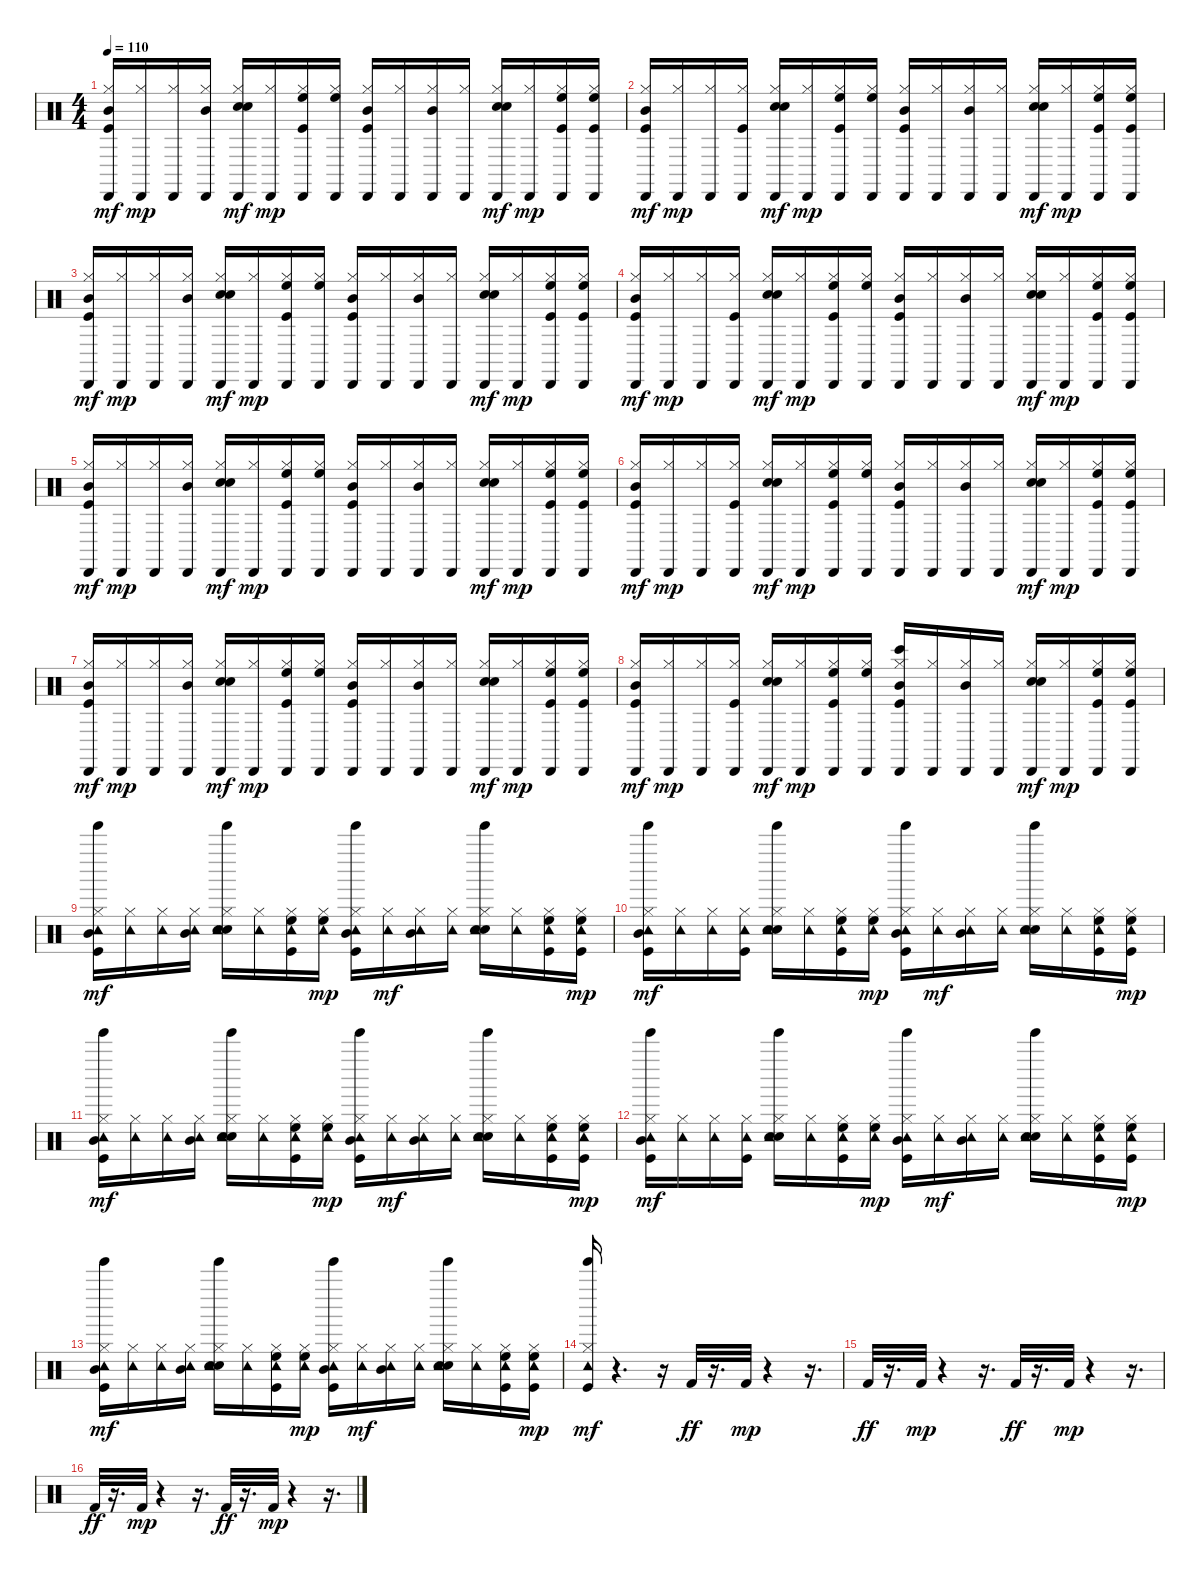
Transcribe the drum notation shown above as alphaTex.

\track "" {instrument percussion}
\staff {score}
\articulation defaults
\ts (4 4)
\tempo 110
\clef neutral
\ks c
("Kick (hit)" "Hi-Hat (closed)" "Cabasa (hit)" "Mid Tom (hit)").16{dy mf} ("Hi-Hat (closed)" "Cabasa (hit)").16{dy mp} ("Hi-Hat (closed)" "Cabasa (hit)").16 ("Hi-Hat (closed)" "Cabasa (hit)" "Mid Tom (hit)").16 ("Electric Snare (hit)" "Hi-Hat (closed)" "Cabasa (hit)" "Hand Clap (hit)").16{dy mf} ("Hi-Hat (closed)" "Cabasa (hit)").16{dy mp} ("Kick (hit)" "Hi-Hat (closed)" "Cabasa (hit)" "High Floor Tom (hit)").16 ("Hi-Hat (closed)" "Cabasa (hit)" "High Floor Tom (hit)").16 ("Kick (hit)" "Hi-Hat (closed)" "Cabasa (hit)" "Mid Tom (hit)").16 ("Hi-Hat (closed)" "Cabasa (hit)").16 ("Hi-Hat (closed)" "Cabasa (hit)" "Mid Tom (hit)").16 ("Hi-Hat (closed)" "Cabasa (hit)").16 ("Electric Snare (hit)" "Hi-Hat (closed)" "Cabasa (hit)" "Hand Clap (hit)").16{dy mf} ("Hi-Hat (closed)" "Cabasa (hit)").16{dy mp} ("Kick (hit)" "Hi-Hat (closed)" "Cabasa (hit)" "High Floor Tom (hit)").16 ("Kick (hit)" "Hi-Hat (closed)" "Cabasa (hit)" "High Floor Tom (hit)").16 |
("Kick (hit)" "Hi-Hat (closed)" "Cabasa (hit)" "Mid Tom (hit)").16{dy mf} ("Hi-Hat (closed)" "Cabasa (hit)").16{dy mp} ("Hi-Hat (closed)" "Cabasa (hit)").16 ("Kick (hit)" "Hi-Hat (closed)" "Cabasa (hit)").16 ("Electric Snare (hit)" "Hi-Hat (closed)" "Cabasa (hit)" "Hand Clap (hit)").16{dy mf} ("Hi-Hat (closed)" "Cabasa (hit)").16{dy mp} ("Kick (hit)" "Hi-Hat (closed)" "Cabasa (hit)" "High Floor Tom (hit)").16 ("Hi-Hat (closed)" "Cabasa (hit)" "High Floor Tom (hit)").16 ("Kick (hit)" "Hi-Hat (closed)" "Cabasa (hit)" "Mid Tom (hit)").16 ("Hi-Hat (closed)" "Cabasa (hit)").16 ("Hi-Hat (closed)" "Cabasa (hit)" "Mid Tom (hit)").16 ("Hi-Hat (closed)" "Cabasa (hit)").16 ("Electric Snare (hit)" "Hi-Hat (closed)" "Cabasa (hit)" "Hand Clap (hit)").16{dy mf} ("Hi-Hat (closed)" "Cabasa (hit)").16{dy mp} ("Kick (hit)" "Hi-Hat (closed)" "Cabasa (hit)" "High Floor Tom (hit)").16 ("Kick (hit)" "Hi-Hat (closed)" "Cabasa (hit)" "High Floor Tom (hit)").16 |
("Kick (hit)" "Hi-Hat (closed)" "Cabasa (hit)" "Mid Tom (hit)").16{dy mf} ("Hi-Hat (closed)" "Cabasa (hit)").16{dy mp} ("Hi-Hat (closed)" "Cabasa (hit)").16 ("Hi-Hat (closed)" "Cabasa (hit)" "Mid Tom (hit)").16 ("Electric Snare (hit)" "Hi-Hat (closed)" "Cabasa (hit)" "Hand Clap (hit)").16{dy mf} ("Hi-Hat (closed)" "Cabasa (hit)").16{dy mp} ("Kick (hit)" "Hi-Hat (closed)" "Cabasa (hit)" "High Floor Tom (hit)").16 ("Hi-Hat (closed)" "Cabasa (hit)" "High Floor Tom (hit)").16 ("Kick (hit)" "Hi-Hat (closed)" "Cabasa (hit)" "Mid Tom (hit)").16 ("Hi-Hat (closed)" "Cabasa (hit)").16 ("Hi-Hat (closed)" "Cabasa (hit)" "Mid Tom (hit)").16 ("Hi-Hat (closed)" "Cabasa (hit)").16 ("Electric Snare (hit)" "Hi-Hat (closed)" "Cabasa (hit)" "Hand Clap (hit)").16{dy mf} ("Hi-Hat (closed)" "Cabasa (hit)").16{dy mp} ("Kick (hit)" "Hi-Hat (closed)" "Cabasa (hit)" "High Floor Tom (hit)").16 ("Kick (hit)" "Hi-Hat (closed)" "Cabasa (hit)" "High Floor Tom (hit)").16 |
("Kick (hit)" "Hi-Hat (closed)" "Cabasa (hit)" "Mid Tom (hit)").16{dy mf} ("Hi-Hat (closed)" "Cabasa (hit)").16{dy mp} ("Hi-Hat (closed)" "Cabasa (hit)").16 ("Kick (hit)" "Hi-Hat (closed)" "Cabasa (hit)").16 ("Electric Snare (hit)" "Hi-Hat (closed)" "Cabasa (hit)" "Hand Clap (hit)").16{dy mf} ("Hi-Hat (closed)" "Cabasa (hit)").16{dy mp} ("Kick (hit)" "Hi-Hat (closed)" "Cabasa (hit)" "High Floor Tom (hit)").16 ("Hi-Hat (closed)" "Cabasa (hit)" "High Floor Tom (hit)").16 ("Kick (hit)" "Hi-Hat (closed)" "Cabasa (hit)" "Mid Tom (hit)").16 ("Hi-Hat (closed)" "Cabasa (hit)").16 ("Hi-Hat (closed)" "Cabasa (hit)" "Mid Tom (hit)").16 ("Hi-Hat (closed)" "Cabasa (hit)").16 ("Electric Snare (hit)" "Hi-Hat (closed)" "Cabasa (hit)" "Hand Clap (hit)").16{dy mf} ("Hi-Hat (closed)" "Cabasa (hit)").16{dy mp} ("Kick (hit)" "Hi-Hat (closed)" "Cabasa (hit)" "High Floor Tom (hit)").16 ("Kick (hit)" "Hi-Hat (closed)" "Cabasa (hit)" "High Floor Tom (hit)").16 |
("Kick (hit)" "Hi-Hat (closed)" "Cabasa (hit)" "Mid Tom (hit)").16{dy mf} ("Hi-Hat (closed)" "Cabasa (hit)").16{dy mp} ("Hi-Hat (closed)" "Cabasa (hit)").16 ("Hi-Hat (closed)" "Cabasa (hit)" "Mid Tom (hit)").16 ("Electric Snare (hit)" "Hi-Hat (closed)" "Cabasa (hit)" "Hand Clap (hit)").16{dy mf} ("Hi-Hat (closed)" "Cabasa (hit)").16{dy mp} ("Kick (hit)" "Hi-Hat (closed)" "Cabasa (hit)" "High Floor Tom (hit)").16 ("Hi-Hat (closed)" "Cabasa (hit)" "High Floor Tom (hit)").16 ("Kick (hit)" "Hi-Hat (closed)" "Cabasa (hit)" "Mid Tom (hit)").16 ("Hi-Hat (closed)" "Cabasa (hit)").16 ("Hi-Hat (closed)" "Cabasa (hit)" "Mid Tom (hit)").16 ("Hi-Hat (closed)" "Cabasa (hit)").16 ("Electric Snare (hit)" "Hi-Hat (closed)" "Cabasa (hit)" "Hand Clap (hit)").16{dy mf} ("Hi-Hat (closed)" "Cabasa (hit)").16{dy mp} ("Kick (hit)" "Hi-Hat (closed)" "Cabasa (hit)" "High Floor Tom (hit)").16 ("Kick (hit)" "Hi-Hat (closed)" "Cabasa (hit)" "High Floor Tom (hit)").16 |
("Kick (hit)" "Hi-Hat (closed)" "Cabasa (hit)" "Mid Tom (hit)").16{dy mf} ("Hi-Hat (closed)" "Cabasa (hit)").16{dy mp} ("Hi-Hat (closed)" "Cabasa (hit)").16 ("Kick (hit)" "Hi-Hat (closed)" "Cabasa (hit)").16 ("Electric Snare (hit)" "Hi-Hat (closed)" "Cabasa (hit)" "Hand Clap (hit)").16{dy mf} ("Hi-Hat (closed)" "Cabasa (hit)").16{dy mp} ("Kick (hit)" "Hi-Hat (closed)" "Cabasa (hit)" "High Floor Tom (hit)").16 ("Hi-Hat (closed)" "Cabasa (hit)" "High Floor Tom (hit)").16 ("Kick (hit)" "Hi-Hat (closed)" "Cabasa (hit)" "Mid Tom (hit)").16 ("Hi-Hat (closed)" "Cabasa (hit)").16 ("Hi-Hat (closed)" "Cabasa (hit)" "Mid Tom (hit)").16 ("Hi-Hat (closed)" "Cabasa (hit)").16 ("Electric Snare (hit)" "Hi-Hat (closed)" "Cabasa (hit)" "Hand Clap (hit)").16{dy mf} ("Hi-Hat (closed)" "Cabasa (hit)").16{dy mp} ("Kick (hit)" "Hi-Hat (closed)" "Cabasa (hit)" "High Floor Tom (hit)").16 ("Kick (hit)" "Hi-Hat (closed)" "Cabasa (hit)" "High Floor Tom (hit)").16 |
("Kick (hit)" "Hi-Hat (closed)" "Cabasa (hit)" "Mid Tom (hit)").16{dy mf} ("Hi-Hat (closed)" "Cabasa (hit)").16{dy mp} ("Hi-Hat (closed)" "Cabasa (hit)").16 ("Hi-Hat (closed)" "Cabasa (hit)" "Mid Tom (hit)").16 ("Electric Snare (hit)" "Hi-Hat (closed)" "Cabasa (hit)" "Hand Clap (hit)").16{dy mf} ("Hi-Hat (closed)" "Cabasa (hit)").16{dy mp} ("Kick (hit)" "Hi-Hat (closed)" "Cabasa (hit)" "High Floor Tom (hit)").16 ("Hi-Hat (closed)" "Cabasa (hit)" "High Floor Tom (hit)").16 ("Kick (hit)" "Hi-Hat (closed)" "Cabasa (hit)" "Mid Tom (hit)").16 ("Hi-Hat (closed)" "Cabasa (hit)").16 ("Hi-Hat (closed)" "Cabasa (hit)" "Mid Tom (hit)").16 ("Hi-Hat (closed)" "Cabasa (hit)").16 ("Electric Snare (hit)" "Hi-Hat (closed)" "Cabasa (hit)" "Hand Clap (hit)").16{dy mf} ("Hi-Hat (closed)" "Cabasa (hit)").16{dy mp} ("Kick (hit)" "Hi-Hat (closed)" "Cabasa (hit)" "High Floor Tom (hit)").16 ("Kick (hit)" "Hi-Hat (closed)" "Cabasa (hit)" "High Floor Tom (hit)").16 |
("Kick (hit)" "Hi-Hat (closed)" "Cabasa (hit)" "Mid Tom (hit)").16{dy mf} ("Hi-Hat (closed)" "Cabasa (hit)").16{dy mp} ("Hi-Hat (closed)" "Cabasa (hit)").16 ("Kick (hit)" "Hi-Hat (closed)" "Cabasa (hit)").16 ("Electric Snare (hit)" "Hi-Hat (closed)" "Cabasa (hit)" "Hand Clap (hit)").16{dy mf} ("Hi-Hat (closed)" "Cabasa (hit)").16{dy mp} ("Kick (hit)" "Hi-Hat (closed)" "Cabasa (hit)" "High Floor Tom (hit)").16 ("Hi-Hat (closed)" "Cabasa (hit)" "High Floor Tom (hit)").16 ("Bongo High (hit)" "Kick (hit)" "Hi-Hat (closed)" "Cabasa (hit)" "Mid Tom (hit)").16 ("Hi-Hat (closed)" "Cabasa (hit)").16 ("Hi-Hat (closed)" "Cabasa (hit)" "Mid Tom (hit)").16 ("Hi-Hat (closed)" "Cabasa (hit)").16 ("Electric Snare (hit)" "Hi-Hat (closed)" "Cabasa (hit)" "Hand Clap (hit)").16{dy mf} ("Hi-Hat (closed)" "Cabasa (hit)").16{dy mp} ("Kick (hit)" "Hi-Hat (closed)" "Cabasa (hit)" "High Floor Tom (hit)").16 ("Kick (hit)" "Hi-Hat (closed)" "Cabasa (hit)" "High Floor Tom (hit)").16 |
("Tinkle Bell (hit)" "Kick (hit)" "Hi-Hat (closed)" "Tambourine (hit)" "Mid Tom (hit)").16{dy mf} ("Hi-Hat (closed)" "Tambourine (hit)").16 ("Hi-Hat (closed)" "Tambourine (hit)").16 ("Hi-Hat (closed)" "Tambourine (hit)" "Mid Tom (hit)").16 ("Tinkle Bell (hit)" "Electric Snare (hit)" "Hi-Hat (closed)" "Tambourine (hit)" "Hand Clap (hit)").16 ("Hi-Hat (closed)" "Tambourine (hit)").16 ("Kick (hit)" "Hi-Hat (closed)" "Tambourine (hit)" "High Floor Tom (hit)").16 ("Hi-Hat (closed)" "Tambourine (hit)" "High Floor Tom (hit)").16{dy mp} ("Tinkle Bell (hit)" "Kick (hit)" "Hi-Hat (closed)" "Tambourine (hit)" "Mid Tom (hit)").16 ("Hi-Hat (closed)" "Tambourine (hit)").16{dy mf} ("Hi-Hat (closed)" "Tambourine (hit)" "Mid Tom (hit)").16 ("Hi-Hat (closed)" "Tambourine (hit)").16 ("Tinkle Bell (hit)" "Electric Snare (hit)" "Hi-Hat (closed)" "Tambourine (hit)" "Hand Clap (hit)").16 ("Hi-Hat (closed)" "Tambourine (hit)").16 ("Kick (hit)" "Hi-Hat (closed)" "Tambourine (hit)" "High Floor Tom (hit)").16 ("Kick (hit)" "Hi-Hat (closed)" "Tambourine (hit)" "High Floor Tom (hit)").16{dy mp} |
("Tinkle Bell (hit)" "Kick (hit)" "Hi-Hat (closed)" "Tambourine (hit)" "Mid Tom (hit)").16{dy mf} ("Hi-Hat (closed)" "Tambourine (hit)").16 ("Hi-Hat (closed)" "Tambourine (hit)").16 ("Kick (hit)" "Hi-Hat (closed)" "Tambourine (hit)").16 ("Tinkle Bell (hit)" "Electric Snare (hit)" "Hi-Hat (closed)" "Tambourine (hit)" "Hand Clap (hit)").16 ("Hi-Hat (closed)" "Tambourine (hit)").16 ("Kick (hit)" "Hi-Hat (closed)" "Tambourine (hit)" "High Floor Tom (hit)").16 ("Hi-Hat (closed)" "Tambourine (hit)" "High Floor Tom (hit)").16{dy mp} ("Tinkle Bell (hit)" "Kick (hit)" "Hi-Hat (closed)" "Tambourine (hit)" "Mid Tom (hit)").16 ("Hi-Hat (closed)" "Tambourine (hit)").16{dy mf} ("Hi-Hat (closed)" "Tambourine (hit)" "Mid Tom (hit)").16 ("Hi-Hat (closed)" "Tambourine (hit)").16 ("Tinkle Bell (hit)" "Electric Snare (hit)" "Hi-Hat (closed)" "Tambourine (hit)" "Hand Clap (hit)").16 ("Hi-Hat (closed)" "Tambourine (hit)").16 ("Kick (hit)" "Hi-Hat (closed)" "Tambourine (hit)" "High Floor Tom (hit)").16 ("Kick (hit)" "Hi-Hat (closed)" "Tambourine (hit)" "High Floor Tom (hit)").16{dy mp} |
("Tinkle Bell (hit)" "Kick (hit)" "Hi-Hat (closed)" "Tambourine (hit)" "Mid Tom (hit)").16{dy mf} ("Hi-Hat (closed)" "Tambourine (hit)").16 ("Hi-Hat (closed)" "Tambourine (hit)").16 ("Hi-Hat (closed)" "Tambourine (hit)" "Mid Tom (hit)").16 ("Tinkle Bell (hit)" "Electric Snare (hit)" "Hi-Hat (closed)" "Tambourine (hit)" "Hand Clap (hit)").16 ("Hi-Hat (closed)" "Tambourine (hit)").16 ("Kick (hit)" "Hi-Hat (closed)" "Tambourine (hit)" "High Floor Tom (hit)").16 ("Hi-Hat (closed)" "Tambourine (hit)" "High Floor Tom (hit)").16{dy mp} ("Tinkle Bell (hit)" "Kick (hit)" "Hi-Hat (closed)" "Tambourine (hit)" "Mid Tom (hit)").16 ("Hi-Hat (closed)" "Tambourine (hit)").16{dy mf} ("Hi-Hat (closed)" "Tambourine (hit)" "Mid Tom (hit)").16 ("Hi-Hat (closed)" "Tambourine (hit)").16 ("Tinkle Bell (hit)" "Electric Snare (hit)" "Hi-Hat (closed)" "Tambourine (hit)" "Hand Clap (hit)").16 ("Hi-Hat (closed)" "Tambourine (hit)").16 ("Kick (hit)" "Hi-Hat (closed)" "Tambourine (hit)" "High Floor Tom (hit)").16 ("Kick (hit)" "Hi-Hat (closed)" "Tambourine (hit)" "High Floor Tom (hit)").16{dy mp} |
("Tinkle Bell (hit)" "Kick (hit)" "Hi-Hat (closed)" "Tambourine (hit)" "Mid Tom (hit)").16{dy mf} ("Hi-Hat (closed)" "Tambourine (hit)").16 ("Hi-Hat (closed)" "Tambourine (hit)").16 ("Kick (hit)" "Hi-Hat (closed)" "Tambourine (hit)").16 ("Tinkle Bell (hit)" "Electric Snare (hit)" "Hi-Hat (closed)" "Tambourine (hit)" "Hand Clap (hit)").16 ("Hi-Hat (closed)" "Tambourine (hit)").16 ("Kick (hit)" "Hi-Hat (closed)" "Tambourine (hit)" "High Floor Tom (hit)").16 ("Hi-Hat (closed)" "Tambourine (hit)" "High Floor Tom (hit)").16{dy mp} ("Tinkle Bell (hit)" "Kick (hit)" "Hi-Hat (closed)" "Tambourine (hit)" "Mid Tom (hit)").16 ("Hi-Hat (closed)" "Tambourine (hit)").16{dy mf} ("Hi-Hat (closed)" "Tambourine (hit)" "Mid Tom (hit)").16 ("Hi-Hat (closed)" "Tambourine (hit)").16 ("Tinkle Bell (hit)" "Electric Snare (hit)" "Hi-Hat (closed)" "Tambourine (hit)" "Hand Clap (hit)").16 ("Hi-Hat (closed)" "Tambourine (hit)").16 ("Kick (hit)" "Hi-Hat (closed)" "Tambourine (hit)" "High Floor Tom (hit)").16 ("Kick (hit)" "Hi-Hat (closed)" "Tambourine (hit)" "High Floor Tom (hit)").16{dy mp} |
("Tinkle Bell (hit)" "Kick (hit)" "Hi-Hat (closed)" "Tambourine (hit)" "Mid Tom (hit)").16{dy mf} ("Hi-Hat (closed)" "Tambourine (hit)").16 ("Hi-Hat (closed)" "Tambourine (hit)").16 ("Hi-Hat (closed)" "Tambourine (hit)" "Mid Tom (hit)").16 ("Tinkle Bell (hit)" "Electric Snare (hit)" "Hi-Hat (closed)" "Tambourine (hit)" "Hand Clap (hit)").16 ("Hi-Hat (closed)" "Tambourine (hit)").16 ("Kick (hit)" "Hi-Hat (closed)" "Tambourine (hit)" "High Floor Tom (hit)").16 ("Hi-Hat (closed)" "Tambourine (hit)" "High Floor Tom (hit)").16{dy mp} ("Tinkle Bell (hit)" "Kick (hit)" "Hi-Hat (closed)" "Tambourine (hit)" "Mid Tom (hit)").16 ("Hi-Hat (closed)" "Tambourine (hit)").16{dy mf} ("Hi-Hat (closed)" "Tambourine (hit)" "Mid Tom (hit)").16 ("Hi-Hat (closed)" "Tambourine (hit)").16 ("Tinkle Bell (hit)" "Electric Snare (hit)" "Hi-Hat (closed)" "Tambourine (hit)" "Hand Clap (hit)").16 ("Hi-Hat (closed)" "Tambourine (hit)").16 ("Kick (hit)" "Hi-Hat (closed)" "Tambourine (hit)" "High Floor Tom (hit)").16 ("Kick (hit)" "Hi-Hat (closed)" "Tambourine (hit)" "High Floor Tom (hit)").16{dy mp} |
("Tinkle Bell (hit)" "Kick (hit)" "Hi-Hat (closed)" "Tambourine (hit)").16{dy mf} r.4{d} r.16 "Kick (hit) 2".32{dy ff} r.16{d} "Kick (hit) 2".32{dy mp} r.4 r.16{d} |
"Kick (hit) 2".32{dy ff} r.16{d} "Kick (hit) 2".32{dy mp} r.4 r.16{d} "Kick (hit) 2".32{dy ff} r.16{d} "Kick (hit) 2".32{dy mp} r.4 r.16{d} |
"Kick (hit) 2".32{dy ff} r.16{d} "Kick (hit) 2".32{dy mp} r.4 r.16{d} "Kick (hit) 2".32{dy ff} r.16{d} "Kick (hit) 2".32{dy mp} r.4 r.16{d}
